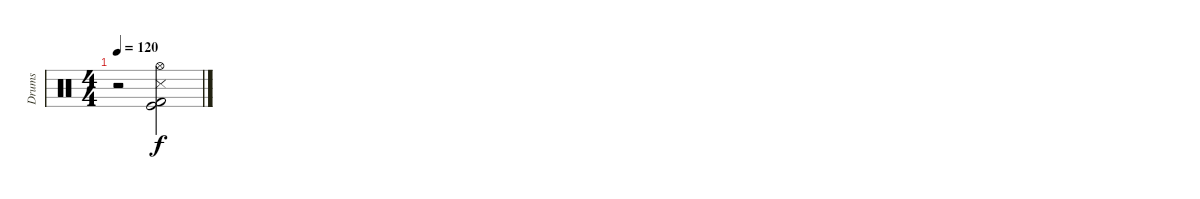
\track ("Drums" "Drums") {instrument percussion}
\staff {score}
\articulation defaults
\ts (4 4)
\tempo 120
\clef neutral
\ks c
r.2{dy mp} ("Hi-Hat (open)" "Snare (side stick) 3" "Kick (hit)" "Kick (hit) 2").2{dy f}
